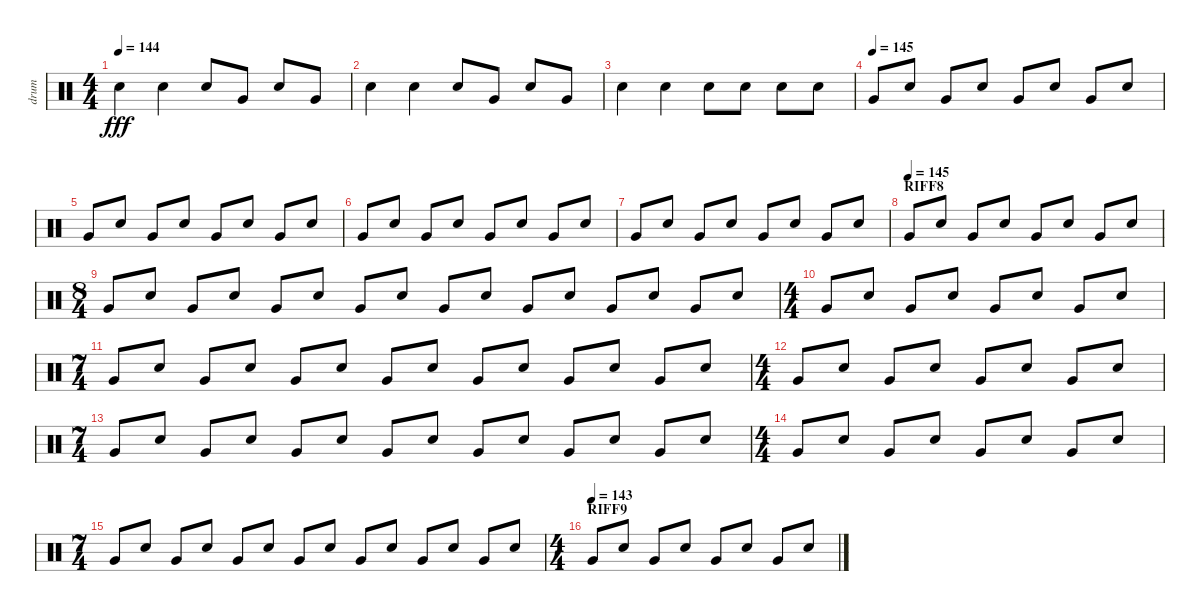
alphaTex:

\track ("drum" "drum") {instrument percussion}
\staff {score}
\articulation defaults
\ts (4 4)
\tempo 144
\clef neutral
\ks c "Electric Snare (hit)".4{dy fff} "Electric Snare (hit)".4 "Electric Snare (hit)".8 "Very Low Tom (hit)".8 "Electric Snare (hit)".8 "Very Low Tom (hit)".8
|
"Electric Snare (hit)".4 "Electric Snare (hit)".4 "Electric Snare (hit)".8 "Very Low Tom (hit)".8 "Electric Snare (hit)".8 "Very Low Tom (hit)".8 |
"Electric Snare (hit)".4 "Electric Snare (hit)".4 "Electric Snare (hit)".8 "Electric Snare (hit)".8 "Electric Snare (hit)".8 "Electric Snare (hit)".8 |
\tempo (145)
"Very Low Tom (hit)".8 "Electric Snare (hit)".8 "Very Low Tom (hit)".8 "Electric Snare (hit)".8 "Very Low Tom (hit)".8 "Electric Snare (hit)".8 "Very Low Tom (hit)".8 "Electric Snare (hit)".8 |
"Very Low Tom (hit)".8 "Electric Snare (hit)".8 "Very Low Tom (hit)".8 "Electric Snare (hit)".8 "Very Low Tom (hit)".8 "Electric Snare (hit)".8 "Very Low Tom (hit)".8 "Electric Snare (hit)".8 |
"Very Low Tom (hit)".8 "Electric Snare (hit)".8 "Very Low Tom (hit)".8 "Electric Snare (hit)".8 "Very Low Tom (hit)".8 "Electric Snare (hit)".8 "Very Low Tom (hit)".8 "Electric Snare (hit)".8 |
"Very Low Tom (hit)".8 "Electric Snare (hit)".8 "Very Low Tom (hit)".8 "Electric Snare (hit)".8 "Very Low Tom (hit)".8 "Electric Snare (hit)".8 "Very Low Tom (hit)".8 "Electric Snare (hit)".8 |
\section ("" "RIFF8")
\tempo (145)
"Very Low Tom (hit)".8 "Electric Snare (hit)".8 "Very Low Tom (hit)".8 "Electric Snare (hit)".8 "Very Low Tom (hit)".8 "Electric Snare (hit)".8 "Very Low Tom (hit)".8 "Electric Snare (hit)".8 |
\ts (8 4)
"Very Low Tom (hit)".8 "Electric Snare (hit)".8 "Very Low Tom (hit)".8 "Electric Snare (hit)".8 "Very Low Tom (hit)".8 "Electric Snare (hit)".8 "Very Low Tom (hit)".8 "Electric Snare (hit)".8 "Very Low Tom (hit)".8 "Electric Snare (hit)".8 "Very Low Tom (hit)".8 "Electric Snare (hit)".8 "Very Low Tom (hit)".8 "Electric Snare (hit)".8 "Very Low Tom (hit)".8 "Electric Snare (hit)".8 |
\ts (4 4)
"Very Low Tom (hit)".8 "Electric Snare (hit)".8 "Very Low Tom (hit)".8 "Electric Snare (hit)".8 "Very Low Tom (hit)".8 "Electric Snare (hit)".8 "Very Low Tom (hit)".8 "Electric Snare (hit)".8 |
\ts (7 4)
"Very Low Tom (hit)".8 "Electric Snare (hit)".8 "Very Low Tom (hit)".8 "Electric Snare (hit)".8 "Very Low Tom (hit)".8 "Electric Snare (hit)".8 "Very Low Tom (hit)".8 "Electric Snare (hit)".8 "Very Low Tom (hit)".8 "Electric Snare (hit)".8 "Very Low Tom (hit)".8 "Electric Snare (hit)".8 "Very Low Tom (hit)".8 "Electric Snare (hit)".8 |
\ts (4 4)
"Very Low Tom (hit)".8 "Electric Snare (hit)".8 "Very Low Tom (hit)".8 "Electric Snare (hit)".8 "Very Low Tom (hit)".8 "Electric Snare (hit)".8 "Very Low Tom (hit)".8 "Electric Snare (hit)".8 |
\ts (7 4)
"Very Low Tom (hit)".8 "Electric Snare (hit)".8 "Very Low Tom (hit)".8 "Electric Snare (hit)".8 "Very Low Tom (hit)".8 "Electric Snare (hit)".8 "Very Low Tom (hit)".8 "Electric Snare (hit)".8 "Very Low Tom (hit)".8 "Electric Snare (hit)".8 "Very Low Tom (hit)".8 "Electric Snare (hit)".8 "Very Low Tom (hit)".8 "Electric Snare (hit)".8 |
\ts (4 4)
"Very Low Tom (hit)".8 "Electric Snare (hit)".8 "Very Low Tom (hit)".8 "Electric Snare (hit)".8 "Very Low Tom (hit)".8 "Electric Snare (hit)".8 "Very Low Tom (hit)".8 "Electric Snare (hit)".8 |
\ts (7 4)
"Very Low Tom (hit)".8 "Electric Snare (hit)".8 "Very Low Tom (hit)".8 "Electric Snare (hit)".8 "Very Low Tom (hit)".8 "Electric Snare (hit)".8 "Very Low Tom (hit)".8 "Electric Snare (hit)".8 "Very Low Tom (hit)".8 "Electric Snare (hit)".8 "Very Low Tom (hit)".8 "Electric Snare (hit)".8 "Very Low Tom (hit)".8 "Electric Snare (hit)".8 |
\ts (4 4)
\section ("" "RIFF9")
\tempo (143)
"Very Low Tom (hit)".8 "Electric Snare (hit)".8 "Very Low Tom (hit)".8 "Electric Snare (hit)".8 "Very Low Tom (hit)".8 "Electric Snare (hit)".8 "Very Low Tom (hit)".8 "Electric Snare (hit)".8
